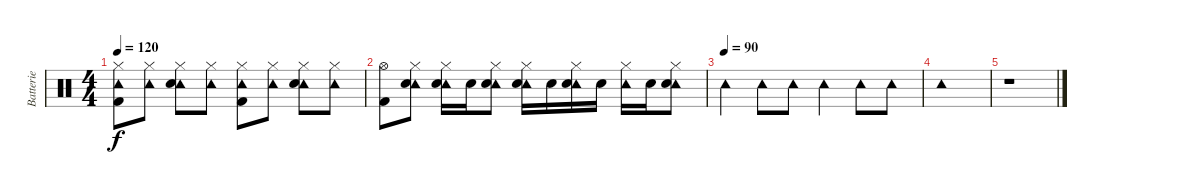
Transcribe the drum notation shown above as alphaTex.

\track ("Batterie" "Batterie") {instrument percussion}
\staff {score}
\articulation defaults
\ts (4 4)
\tempo 120
\clef neutral
\ks c
("Tambourine (hit)" "Hi-Hat (closed)" "Kick (hit) 2").8{dy f} ("Tambourine (hit)" "Hi-Hat (closed)").8 ("Tambourine (hit)" "Hi-Hat (closed)" "Electric Snare (hit)").8 ("Tambourine (hit)" "Hi-Hat (closed)").8 ("Tambourine (hit)" "Hi-Hat (closed)" "Kick (hit) 2").8 ("Tambourine (hit)" "Hi-Hat (closed)").8 ("Tambourine (hit)" "Hi-Hat (closed)" "Electric Snare (hit)").8 ("Tambourine (hit)" "Hi-Hat (closed)").8 |
("Hi-Hat (open)" "Kick (hit) 2").8 ("Tambourine (hit)" "Hi-Hat (closed)" "Electric Snare (hit)").8 ("Tambourine (hit)" "Hi-Hat (closed)" "Electric Snare (hit)").16 "Electric Snare (hit)".16 ("Tambourine (hit)" "Hi-Hat (closed)" "Electric Snare (hit)").8 ("Tambourine (hit)" "Hi-Hat (closed)" "Electric Snare (hit)").16 "Electric Snare (hit)".16 ("Tambourine (hit)" "Hi-Hat (closed)" "Electric Snare (hit)").16 "Electric Snare (hit)".16 ("Tambourine (hit)" "Hi-Hat (closed)").16 "Electric Snare (hit)".16 ("Tambourine (hit)" "Hi-Hat (closed)" "Electric Snare (hit)").8 |
\tempo (90)
"Tambourine (hit)".4 "Tambourine (hit)".8 "Tambourine (hit)".8 "Tambourine (hit)".4 "Tambourine (hit)".8 "Tambourine (hit)".8 |
"Tambourine (hit)".1 |
r.1
